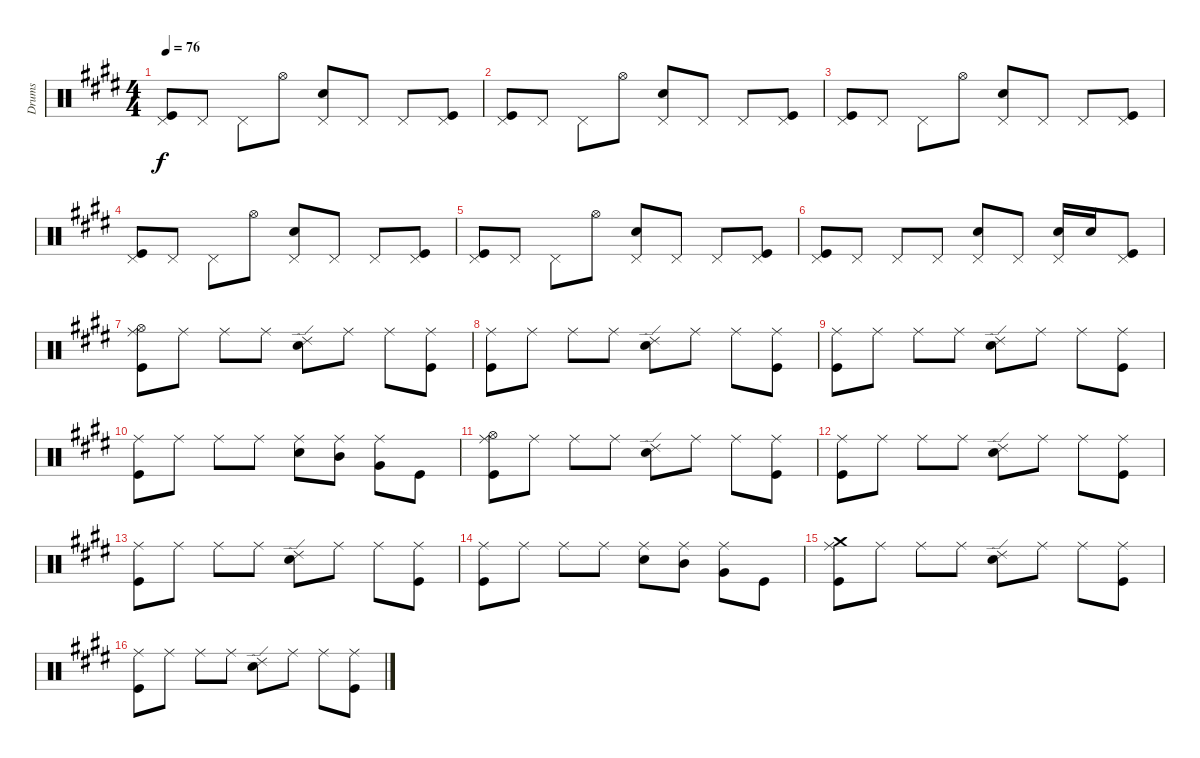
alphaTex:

\track ("Drums" "Drums") {instrument percussion}
\staff {score}
\articulation defaults
\ts (4 4)
\tempo 76
\clef neutral
\ks c#minor
("Pedal Hi-Hat (hit)" "Kick (hit)").8{dy f} "Pedal Hi-Hat (hit)".8 "Pedal Hi-Hat (hit)".8 "Hi-Hat (open)".8 ("Snare (hit) 2" "Pedal Hi-Hat (hit)").8 "Pedal Hi-Hat (hit)".8 "Pedal Hi-Hat (hit)".8 ("Kick (hit)" "Pedal Hi-Hat (hit)").8 |
("Pedal Hi-Hat (hit)" "Kick (hit)").8 "Pedal Hi-Hat (hit)".8 "Pedal Hi-Hat (hit)".8 "Hi-Hat (open)".8 ("Snare (hit) 2" "Pedal Hi-Hat (hit)").8 "Pedal Hi-Hat (hit)".8 "Pedal Hi-Hat (hit)".8 ("Kick (hit)" "Pedal Hi-Hat (hit)").8 |
("Pedal Hi-Hat (hit)" "Kick (hit)").8 "Pedal Hi-Hat (hit)".8 "Pedal Hi-Hat (hit)".8 "Hi-Hat (open)".8 ("Snare (hit) 2" "Pedal Hi-Hat (hit)").8 "Pedal Hi-Hat (hit)".8 "Pedal Hi-Hat (hit)".8 ("Kick (hit)" "Pedal Hi-Hat (hit)").8 |
("Pedal Hi-Hat (hit)" "Kick (hit)").8 "Pedal Hi-Hat (hit)".8 "Pedal Hi-Hat (hit)".8 "Hi-Hat (open)".8 ("Snare (hit) 2" "Pedal Hi-Hat (hit)").8 "Pedal Hi-Hat (hit)".8 "Pedal Hi-Hat (hit)".8 ("Kick (hit)" "Pedal Hi-Hat (hit)").8 |
("Pedal Hi-Hat (hit)" "Kick (hit)").8 "Pedal Hi-Hat (hit)".8 "Pedal Hi-Hat (hit)".8 "Hi-Hat (open)".8 ("Snare (hit) 2" "Pedal Hi-Hat (hit)").8 "Pedal Hi-Hat (hit)".8 "Pedal Hi-Hat (hit)".8 ("Kick (hit)" "Pedal Hi-Hat (hit)").8 |
("Pedal Hi-Hat (hit)" "Kick (hit)").8 "Pedal Hi-Hat (hit)".8 "Pedal Hi-Hat (hit)".8 "Pedal Hi-Hat (hit)".8 ("Snare (hit) 2" "Pedal Hi-Hat (hit)").8 "Pedal Hi-Hat (hit)".8 ("Snare (hit) 2" "Pedal Hi-Hat (hit)").16 "Snare (hit) 2".16 ("Kick (hit)" "Pedal Hi-Hat (hit)").8 |
("Ride (middle)" "Kick (hit)" "Hi-Hat (open)").8 "Ride (middle)".8 "Ride (middle)".8 "Ride (middle)".8 ("Snare (hit) 2" "Ride (edge) 2").8 "Ride (middle)".8 "Ride (middle)".8 ("Kick (hit)" "Ride (middle)").8 |
("Ride (middle)" "Kick (hit)").8 "Ride (middle)".8 "Ride (middle)".8 "Ride (middle)".8 ("Snare (hit) 2" "Ride (edge) 2").8 "Ride (middle)".8 "Ride (middle)".8 ("Kick (hit)" "Ride (middle)").8 |
("Ride (middle)" "Kick (hit)").8 "Ride (middle)".8 "Ride (middle)".8 "Ride (middle)".8 ("Snare (hit) 2" "Ride (edge) 2").8 "Ride (middle)".8 "Ride (middle)".8 ("Kick (hit)" "Ride (middle)").8 |
("Ride (middle)" "Kick (hit)").8 "Ride (middle)".8 "Ride (middle)".8 "Ride (middle)".8 ("Ride (middle)" "Snare (hit) 2").8 ("Ride (middle)" "Mid Tom (hit)").8 ("Ride (middle)" "Very Low Tom (hit)").8 "Kick (hit)".8 |
("Ride (middle)" "Kick (hit)" "Hi-Hat (open)").8 "Ride (middle)".8 "Ride (middle)".8 "Ride (middle)".8 ("Snare (hit) 2" "Ride (edge) 2").8 "Ride (middle)".8 "Ride (middle)".8 ("Kick (hit)" "Ride (middle)").8 |
("Ride (middle)" "Kick (hit)").8 "Ride (middle)".8 "Ride (middle)".8 "Ride (middle)".8 ("Snare (hit) 2" "Ride (edge) 2").8 "Ride (middle)".8 "Ride (middle)".8 ("Kick (hit)" "Ride (middle)").8 |
("Ride (middle)" "Kick (hit)").8 "Ride (middle)".8 "Ride (middle)".8 "Ride (middle)".8 ("Snare (hit) 2" "Ride (edge) 2").8 "Ride (middle)".8 "Ride (middle)".8 ("Kick (hit)" "Ride (middle)").8 |
("Ride (middle)" "Kick (hit)").8 "Ride (middle)".8 "Ride (middle)".8 "Ride (middle)".8 ("Ride (middle)" "Snare (hit) 2").8 ("Ride (middle)" "Mid Tom (hit)").8 ("Ride (middle)" "Very Low Tom (hit)").8 "Kick (hit)".8 |
("Ride (middle)" "Kick (hit)" "Crash medium (hit)").8 "Ride (middle)".8 "Ride (middle)".8 "Ride (middle)".8 ("Snare (hit) 2" "Ride (edge) 2").8 "Ride (middle)".8 "Ride (middle)".8 ("Kick (hit)" "Ride (middle)").8 |
("Ride (middle)" "Kick (hit)").8 "Ride (middle)".8 "Ride (middle)".8 "Ride (middle)".8 ("Snare (hit) 2" "Ride (edge) 2").8 "Ride (middle)".8 "Ride (middle)".8 ("Kick (hit)" "Ride (middle)").8
